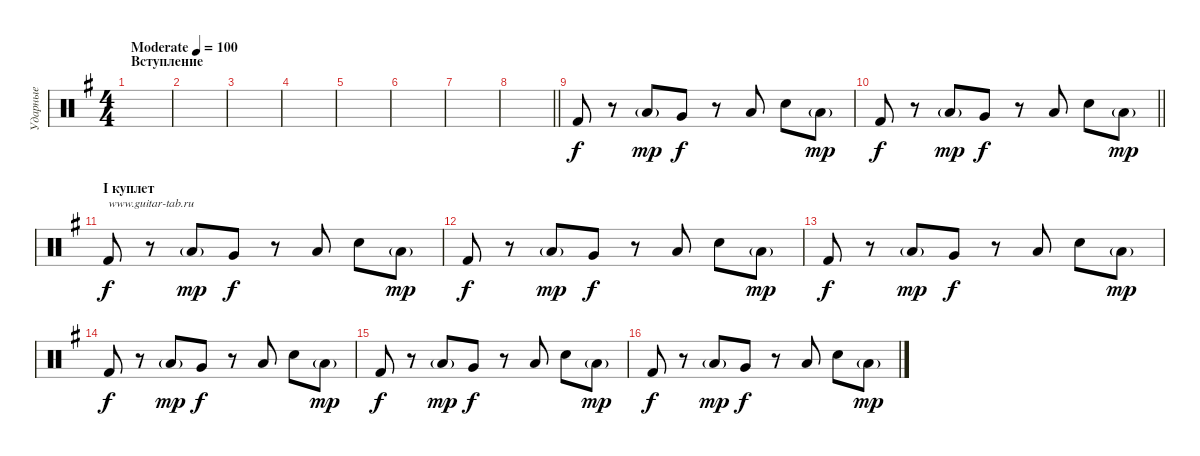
\track ("Ударные" "Ударные") {instrument percussion}
\staff {score}
\articulation defaults
\ts (4 4)
\section ("" "Вступление")
\tempo (100 "Moderate")
\clef neutral
\ks eminor
|
|
|
|
|
|
|
\barLineRight lightlight
|
\section ("" "")
"Kick (hit) 2".8 r.8 "Low Tom (hit)"{g}.8{dy mp} "Very Low Tom (hit)".8{dy f} r.8 "Low Floor Tom (hit)".8 "Electric Snare (hit)".8 "Low Floor Tom (hit)"{g}.8{dy mp} |
\barLineRight lightlight "Kick (hit) 2".8{dy f}
r.8 "Low Tom (hit)"{g}.8{dy mp} "Very Low Tom (hit)".8{dy f} r.8 "Low Floor Tom (hit)".8 "Electric Snare (hit)".8 "Low Floor Tom (hit)"{g}.8{dy mp} |
\section ("" "I куплет")
"Kick (hit) 2".8{txt "www.guitar-tab.ru" dy f} r.8 "Low Tom (hit)"{g}.8{dy mp} "Very Low Tom (hit)".8{dy f} r.8 "Low Floor Tom (hit)".8 "Electric Snare (hit)".8 "Low Floor Tom (hit)"{g}.8{dy mp} |
"Kick (hit) 2".8{dy f} r.8 "Low Tom (hit)"{g}.8{dy mp} "Very Low Tom (hit)".8{dy f} r.8 "Low Floor Tom (hit)".8 "Electric Snare (hit)".8 "Low Floor Tom (hit)"{g}.8{dy mp} |
"Kick (hit) 2".8{dy f} r.8 "Low Tom (hit)"{g}.8{dy mp} "Very Low Tom (hit)".8{dy f} r.8 "Low Floor Tom (hit)".8 "Electric Snare (hit)".8 "Low Floor Tom (hit)"{g}.8{dy mp} |
"Kick (hit) 2".8{dy f} r.8 "Low Tom (hit)"{g}.8{dy mp} "Very Low Tom (hit)".8{dy f} r.8 "Low Floor Tom (hit)".8 "Electric Snare (hit)".8 "Low Floor Tom (hit)"{g}.8{dy mp} |
"Kick (hit) 2".8{dy f} r.8 "Low Tom (hit)"{g}.8{dy mp} "Very Low Tom (hit)".8{dy f} r.8 "Low Floor Tom (hit)".8 "Electric Snare (hit)".8 "Low Floor Tom (hit)"{g}.8{dy mp} |
"Kick (hit) 2".8{dy f} r.8 "Low Tom (hit)"{g}.8{dy mp} "Very Low Tom (hit)".8{dy f} r.8 "Low Floor Tom (hit)".8 "Electric Snare (hit)".8 "Low Floor Tom (hit)"{g}.8{dy mp}
